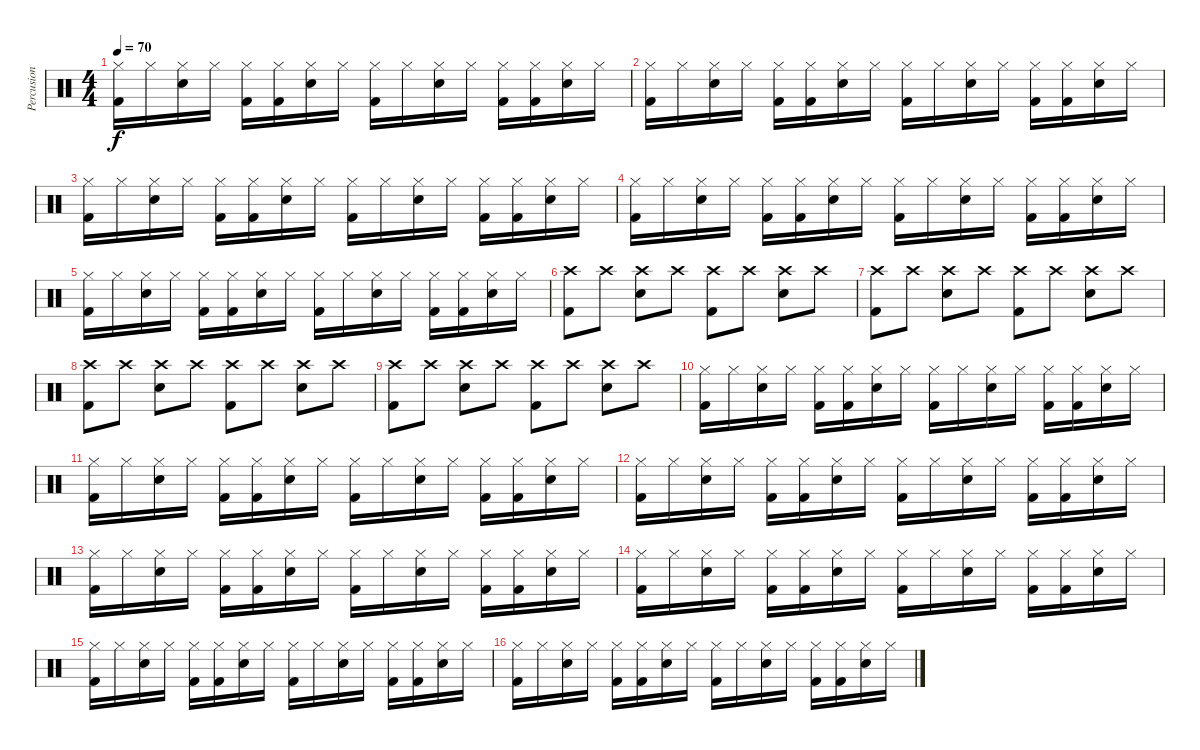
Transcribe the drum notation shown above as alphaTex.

\track ("Percusion" "Percusion") {instrument percussion}
\staff {score}
\articulation defaults
\ts (4 4)
\tempo 70
\clef neutral
\ks c
("Hi-Hat (closed)" "Kick (hit) 2").16{dy f} "Hi-Hat (closed)".16 ("Hi-Hat (closed)" "Snare (hit) 2").16 "Hi-Hat (closed)".16 ("Hi-Hat (closed)" "Kick (hit) 2").16 ("Hi-Hat (closed)" "Kick (hit) 2").16 ("Hi-Hat (closed)" "Snare (hit) 2").16 "Hi-Hat (closed)".16 ("Hi-Hat (closed)" "Kick (hit) 2").16 "Hi-Hat (closed)".16 ("Hi-Hat (closed)" "Snare (hit) 2").16 "Hi-Hat (closed)".16 ("Hi-Hat (closed)" "Kick (hit) 2").16 ("Hi-Hat (closed)" "Kick (hit) 2").16 ("Hi-Hat (closed)" "Snare (hit) 2").16 "Hi-Hat (closed)".16 |
("Hi-Hat (closed)" "Kick (hit) 2").16 "Hi-Hat (closed)".16 ("Hi-Hat (closed)" "Snare (hit) 2").16 "Hi-Hat (closed)".16 ("Hi-Hat (closed)" "Kick (hit) 2").16 ("Hi-Hat (closed)" "Kick (hit) 2").16 ("Hi-Hat (closed)" "Snare (hit) 2").16 "Hi-Hat (closed)".16 ("Hi-Hat (closed)" "Kick (hit) 2").16 "Hi-Hat (closed)".16 ("Hi-Hat (closed)" "Snare (hit) 2").16 "Hi-Hat (closed)".16 ("Hi-Hat (closed)" "Kick (hit) 2").16 ("Hi-Hat (closed)" "Kick (hit) 2").16 ("Hi-Hat (closed)" "Snare (hit) 2").16 "Hi-Hat (closed)".16 |
("Hi-Hat (closed)" "Kick (hit) 2").16 "Hi-Hat (closed)".16 ("Hi-Hat (closed)" "Snare (hit) 2").16 "Hi-Hat (closed)".16 ("Hi-Hat (closed)" "Kick (hit) 2").16 ("Hi-Hat (closed)" "Kick (hit) 2").16 ("Hi-Hat (closed)" "Snare (hit) 2").16 "Hi-Hat (closed)".16 ("Hi-Hat (closed)" "Kick (hit) 2").16 "Hi-Hat (closed)".16 ("Hi-Hat (closed)" "Snare (hit) 2").16 "Hi-Hat (closed)".16 ("Hi-Hat (closed)" "Kick (hit) 2").16 ("Hi-Hat (closed)" "Kick (hit) 2").16 ("Hi-Hat (closed)" "Snare (hit) 2").16 "Hi-Hat (closed)".16 |
("Hi-Hat (closed)" "Kick (hit) 2").16 "Hi-Hat (closed)".16 ("Hi-Hat (closed)" "Snare (hit) 2").16 "Hi-Hat (closed)".16 ("Hi-Hat (closed)" "Kick (hit) 2").16 ("Hi-Hat (closed)" "Kick (hit) 2").16 ("Hi-Hat (closed)" "Snare (hit) 2").16 "Hi-Hat (closed)".16 ("Hi-Hat (closed)" "Kick (hit) 2").16 "Hi-Hat (closed)".16 ("Hi-Hat (closed)" "Snare (hit) 2").16 "Hi-Hat (closed)".16 ("Hi-Hat (closed)" "Kick (hit) 2").16 ("Hi-Hat (closed)" "Kick (hit) 2").16 ("Hi-Hat (closed)" "Snare (hit) 2").16 "Hi-Hat (closed)".16 |
("Hi-Hat (closed)" "Kick (hit) 2").16 "Hi-Hat (closed)".16 ("Hi-Hat (closed)" "Snare (hit) 2").16 "Hi-Hat (closed)".16 ("Hi-Hat (closed)" "Kick (hit) 2").16 ("Hi-Hat (closed)" "Kick (hit) 2").16 ("Hi-Hat (closed)" "Snare (hit) 2").16 "Hi-Hat (closed)".16 ("Hi-Hat (closed)" "Kick (hit) 2").16 "Hi-Hat (closed)".16 ("Hi-Hat (closed)" "Snare (hit) 2").16 "Hi-Hat (closed)".16 ("Hi-Hat (closed)" "Kick (hit) 2").16 ("Hi-Hat (closed)" "Kick (hit) 2").16 ("Hi-Hat (closed)" "Snare (hit) 2").16 "Hi-Hat (closed)".16 |
("Crash high (hit)" "Kick (hit) 2").8 "Crash high (hit)".8 ("Crash high (hit)" "Snare (hit) 2").8 "Crash high (hit)".8 ("Crash high (hit)" "Kick (hit) 2").8 "Crash high (hit)".8 ("Crash high (hit)" "Snare (hit) 2").8 "Crash high (hit)".8 |
("Crash high (hit)" "Kick (hit) 2").8 "Crash high (hit)".8 ("Crash high (hit)" "Snare (hit) 2").8 "Crash high (hit)".8 ("Crash high (hit)" "Kick (hit) 2").8 "Crash high (hit)".8 ("Crash high (hit)" "Snare (hit) 2").8 "Crash high (hit)".8 |
("Crash high (hit)" "Kick (hit) 2").8 "Crash high (hit)".8 ("Crash high (hit)" "Snare (hit) 2").8 "Crash high (hit)".8 ("Crash high (hit)" "Kick (hit) 2").8 "Crash high (hit)".8 ("Crash high (hit)" "Snare (hit) 2").8 "Crash high (hit)".8 |
("Crash high (hit)" "Kick (hit) 2").8 "Crash high (hit)".8 ("Crash high (hit)" "Snare (hit) 2").8 "Crash high (hit)".8 ("Crash high (hit)" "Kick (hit) 2").8 "Crash high (hit)".8 ("Crash high (hit)" "Snare (hit) 2").8 "Crash high (hit)".8 |
("Hi-Hat (closed)" "Kick (hit) 2").16 "Hi-Hat (closed)".16 ("Hi-Hat (closed)" "Snare (hit) 2").16 "Hi-Hat (closed)".16 ("Hi-Hat (closed)" "Kick (hit) 2").16 ("Hi-Hat (closed)" "Kick (hit) 2").16 ("Hi-Hat (closed)" "Snare (hit) 2").16 "Hi-Hat (closed)".16 ("Hi-Hat (closed)" "Kick (hit) 2").16 "Hi-Hat (closed)".16 ("Hi-Hat (closed)" "Snare (hit) 2").16 "Hi-Hat (closed)".16 ("Hi-Hat (closed)" "Kick (hit) 2").16 ("Hi-Hat (closed)" "Kick (hit) 2").16 ("Hi-Hat (closed)" "Snare (hit) 2").16 "Hi-Hat (closed)".16 |
("Hi-Hat (closed)" "Kick (hit) 2").16 "Hi-Hat (closed)".16 ("Hi-Hat (closed)" "Snare (hit) 2").16 "Hi-Hat (closed)".16 ("Hi-Hat (closed)" "Kick (hit) 2").16 ("Hi-Hat (closed)" "Kick (hit) 2").16 ("Hi-Hat (closed)" "Snare (hit) 2").16 "Hi-Hat (closed)".16 ("Hi-Hat (closed)" "Kick (hit) 2").16 "Hi-Hat (closed)".16 ("Hi-Hat (closed)" "Snare (hit) 2").16 "Hi-Hat (closed)".16 ("Hi-Hat (closed)" "Kick (hit) 2").16 ("Hi-Hat (closed)" "Kick (hit) 2").16 ("Hi-Hat (closed)" "Snare (hit) 2").16 "Hi-Hat (closed)".16 |
("Hi-Hat (closed)" "Kick (hit) 2").16 "Hi-Hat (closed)".16 ("Hi-Hat (closed)" "Snare (hit) 2").16 "Hi-Hat (closed)".16 ("Hi-Hat (closed)" "Kick (hit) 2").16 ("Hi-Hat (closed)" "Kick (hit) 2").16 ("Hi-Hat (closed)" "Snare (hit) 2").16 "Hi-Hat (closed)".16 ("Hi-Hat (closed)" "Kick (hit) 2").16 "Hi-Hat (closed)".16 ("Hi-Hat (closed)" "Snare (hit) 2").16 "Hi-Hat (closed)".16 ("Hi-Hat (closed)" "Kick (hit) 2").16 ("Hi-Hat (closed)" "Kick (hit) 2").16 ("Hi-Hat (closed)" "Snare (hit) 2").16 "Hi-Hat (closed)".16 |
("Hi-Hat (closed)" "Kick (hit) 2").16 "Hi-Hat (closed)".16 ("Hi-Hat (closed)" "Snare (hit) 2").16 "Hi-Hat (closed)".16 ("Hi-Hat (closed)" "Kick (hit) 2").16 ("Hi-Hat (closed)" "Kick (hit) 2").16 ("Hi-Hat (closed)" "Snare (hit) 2").16 "Hi-Hat (closed)".16 ("Hi-Hat (closed)" "Kick (hit) 2").16 "Hi-Hat (closed)".16 ("Hi-Hat (closed)" "Snare (hit) 2").16 "Hi-Hat (closed)".16 ("Hi-Hat (closed)" "Kick (hit) 2").16 ("Hi-Hat (closed)" "Kick (hit) 2").16 ("Hi-Hat (closed)" "Snare (hit) 2").16 "Hi-Hat (closed)".16 |
("Hi-Hat (closed)" "Kick (hit) 2").16 "Hi-Hat (closed)".16 ("Hi-Hat (closed)" "Snare (hit) 2").16 "Hi-Hat (closed)".16 ("Hi-Hat (closed)" "Kick (hit) 2").16 ("Hi-Hat (closed)" "Kick (hit) 2").16 ("Hi-Hat (closed)" "Snare (hit) 2").16 "Hi-Hat (closed)".16 ("Hi-Hat (closed)" "Kick (hit) 2").16 "Hi-Hat (closed)".16 ("Hi-Hat (closed)" "Snare (hit) 2").16 "Hi-Hat (closed)".16 ("Hi-Hat (closed)" "Kick (hit) 2").16 ("Hi-Hat (closed)" "Kick (hit) 2").16 ("Hi-Hat (closed)" "Snare (hit) 2").16 "Hi-Hat (closed)".16 |
("Hi-Hat (closed)" "Kick (hit) 2").16 "Hi-Hat (closed)".16 ("Hi-Hat (closed)" "Snare (hit) 2").16 "Hi-Hat (closed)".16 ("Hi-Hat (closed)" "Kick (hit) 2").16 ("Hi-Hat (closed)" "Kick (hit) 2").16 ("Hi-Hat (closed)" "Snare (hit) 2").16 "Hi-Hat (closed)".16 ("Hi-Hat (closed)" "Kick (hit) 2").16 "Hi-Hat (closed)".16 ("Hi-Hat (closed)" "Snare (hit) 2").16 "Hi-Hat (closed)".16 ("Hi-Hat (closed)" "Kick (hit) 2").16 ("Hi-Hat (closed)" "Kick (hit) 2").16 ("Hi-Hat (closed)" "Snare (hit) 2").16 "Hi-Hat (closed)".16 |
("Hi-Hat (closed)" "Kick (hit) 2").16 "Hi-Hat (closed)".16 ("Hi-Hat (closed)" "Snare (hit) 2").16 "Hi-Hat (closed)".16 ("Hi-Hat (closed)" "Kick (hit) 2").16 ("Hi-Hat (closed)" "Kick (hit) 2").16 ("Hi-Hat (closed)" "Snare (hit) 2").16 "Hi-Hat (closed)".16 ("Hi-Hat (closed)" "Kick (hit) 2").16 "Hi-Hat (closed)".16 ("Hi-Hat (closed)" "Snare (hit) 2").16 "Hi-Hat (closed)".16 ("Hi-Hat (closed)" "Kick (hit) 2").16 ("Hi-Hat (closed)" "Kick (hit) 2").16 ("Hi-Hat (closed)" "Snare (hit) 2").16 "Hi-Hat (closed)".16
